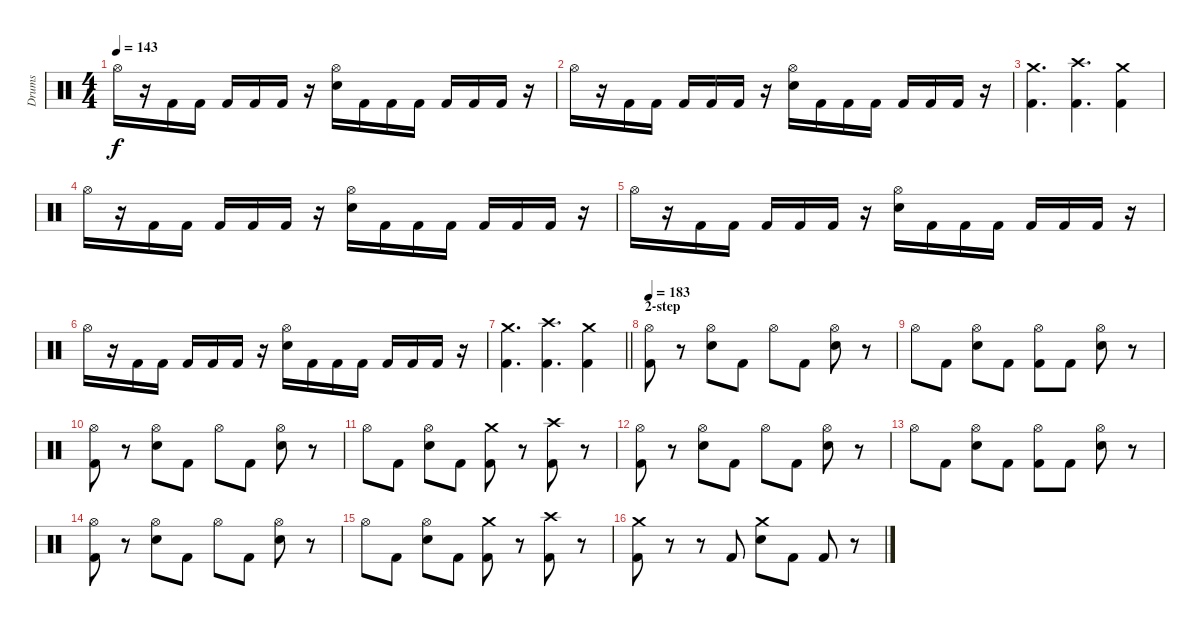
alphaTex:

\track ("Drums" "Drums") {instrument percussion}
\staff {score}
\articulation defaults
\ts (4 4)
\tempo 143
\clef neutral
\ks c "Hi-Hat (open)".16{dy f}
r.16 "Kick (hit) 2".16 "Kick (hit) 2".16 "Kick (hit) 2".16 "Kick (hit) 2".16 "Kick (hit) 2".16 r.16 ("Hi-Hat (open)" "Electric Snare (hit)").16 "Kick (hit) 2".16 "Kick (hit) 2".16 "Kick (hit) 2".16 "Kick (hit) 2".16 "Kick (hit) 2".16 "Kick (hit) 2".16 r.16 |
"Hi-Hat (open)".16 r.16 "Kick (hit) 2".16 "Kick (hit) 2".16 "Kick (hit) 2".16 "Kick (hit) 2".16 "Kick (hit) 2".16 r.16 ("Hi-Hat (open)" "Electric Snare (hit)").16 "Kick (hit) 2".16 "Kick (hit) 2".16 "Kick (hit) 2".16 "Kick (hit) 2".16 "Kick (hit) 2".16 "Kick (hit) 2".16 r.16 |
("Crash medium (hit)" "Kick (hit) 2").4{d} ("Crash high (hit)" "Kick (hit) 2").4{d} ("Crash medium (hit)" "Kick (hit) 2").4 |
"Hi-Hat (open)".16 r.16 "Kick (hit) 2".16 "Kick (hit) 2".16 "Kick (hit) 2".16 "Kick (hit) 2".16 "Kick (hit) 2".16 r.16 ("Hi-Hat (open)" "Electric Snare (hit)").16 "Kick (hit) 2".16 "Kick (hit) 2".16 "Kick (hit) 2".16 "Kick (hit) 2".16 "Kick (hit) 2".16 "Kick (hit) 2".16 r.16 |
"Hi-Hat (open)".16 r.16 "Kick (hit) 2".16 "Kick (hit) 2".16 "Kick (hit) 2".16 "Kick (hit) 2".16 "Kick (hit) 2".16 r.16 ("Hi-Hat (open)" "Electric Snare (hit)").16 "Kick (hit) 2".16 "Kick (hit) 2".16 "Kick (hit) 2".16 "Kick (hit) 2".16 "Kick (hit) 2".16 "Kick (hit) 2".16 r.16 |
"Hi-Hat (open)".16 r.16 "Kick (hit) 2".16 "Kick (hit) 2".16 "Kick (hit) 2".16 "Kick (hit) 2".16 "Kick (hit) 2".16 r.16 ("Hi-Hat (open)" "Electric Snare (hit)").16 "Kick (hit) 2".16 "Kick (hit) 2".16 "Kick (hit) 2".16 "Kick (hit) 2".16 "Kick (hit) 2".16 "Kick (hit) 2".16 r.16 |
\barLineRight lightlight
("Crash medium (hit)" "Kick (hit) 2").4{d} ("Crash high (hit)" "Kick (hit) 2").4{d} ("Crash medium (hit)" "Kick (hit) 2").4 |
\section ("" "2-step")
\tempo 183
("Hi-Hat (open)" "Kick (hit) 2").8 r.8 ("Hi-Hat (open)" "Electric Snare (hit)").8 "Kick (hit) 2".8 "Hi-Hat (open)".8 "Kick (hit) 2".8 ("Hi-Hat (open)" "Electric Snare (hit)").8 r.8 |
"Hi-Hat (open)".8 "Kick (hit) 2".8 ("Hi-Hat (open)" "Electric Snare (hit)").8 "Kick (hit) 2".8 ("Hi-Hat (open)" "Kick (hit) 2").8 "Kick (hit) 2".8 ("Hi-Hat (open)" "Electric Snare (hit)").8 r.8 |
("Hi-Hat (open)" "Kick (hit) 2").8 r.8 ("Hi-Hat (open)" "Electric Snare (hit)").8 "Kick (hit) 2".8 "Hi-Hat (open)".8 "Kick (hit) 2".8 ("Hi-Hat (open)" "Electric Snare (hit)").8 r.8 |
"Hi-Hat (open)".8 "Kick (hit) 2".8 ("Hi-Hat (open)" "Electric Snare (hit)").8 "Kick (hit) 2".8 ("Crash medium (hit)" "Kick (hit) 2").8 r.8 ("Crash high (hit)" "Kick (hit) 2").8 r.8 |
("Hi-Hat (open)" "Kick (hit) 2").8 r.8 ("Hi-Hat (open)" "Electric Snare (hit)").8 "Kick (hit) 2".8 "Hi-Hat (open)".8 "Kick (hit) 2".8 ("Hi-Hat (open)" "Electric Snare (hit)").8 r.8 |
"Hi-Hat (open)".8 "Kick (hit) 2".8 ("Hi-Hat (open)" "Electric Snare (hit)").8 "Kick (hit) 2".8 ("Hi-Hat (open)" "Kick (hit) 2").8 "Kick (hit) 2".8 ("Hi-Hat (open)" "Electric Snare (hit)").8 r.8 |
("Hi-Hat (open)" "Kick (hit) 2").8 r.8 ("Hi-Hat (open)" "Electric Snare (hit)").8 "Kick (hit) 2".8 "Hi-Hat (open)".8 "Kick (hit) 2".8 ("Hi-Hat (open)" "Electric Snare (hit)").8 r.8 |
"Hi-Hat (open)".8 "Kick (hit) 2".8 ("Hi-Hat (open)" "Electric Snare (hit)").8 "Kick (hit) 2".8 ("Crash medium (hit)" "Kick (hit) 2").8 r.8 ("Crash high (hit)" "Kick (hit) 2").8 r.8 |
("Crash medium (hit)" "Kick (hit) 2").8 r.8 r.8 "Kick (hit) 2".8 ("Crash medium (hit)" "Electric Snare (hit)").8 "Kick (hit) 2".8 "Kick (hit) 2".8 r.8
